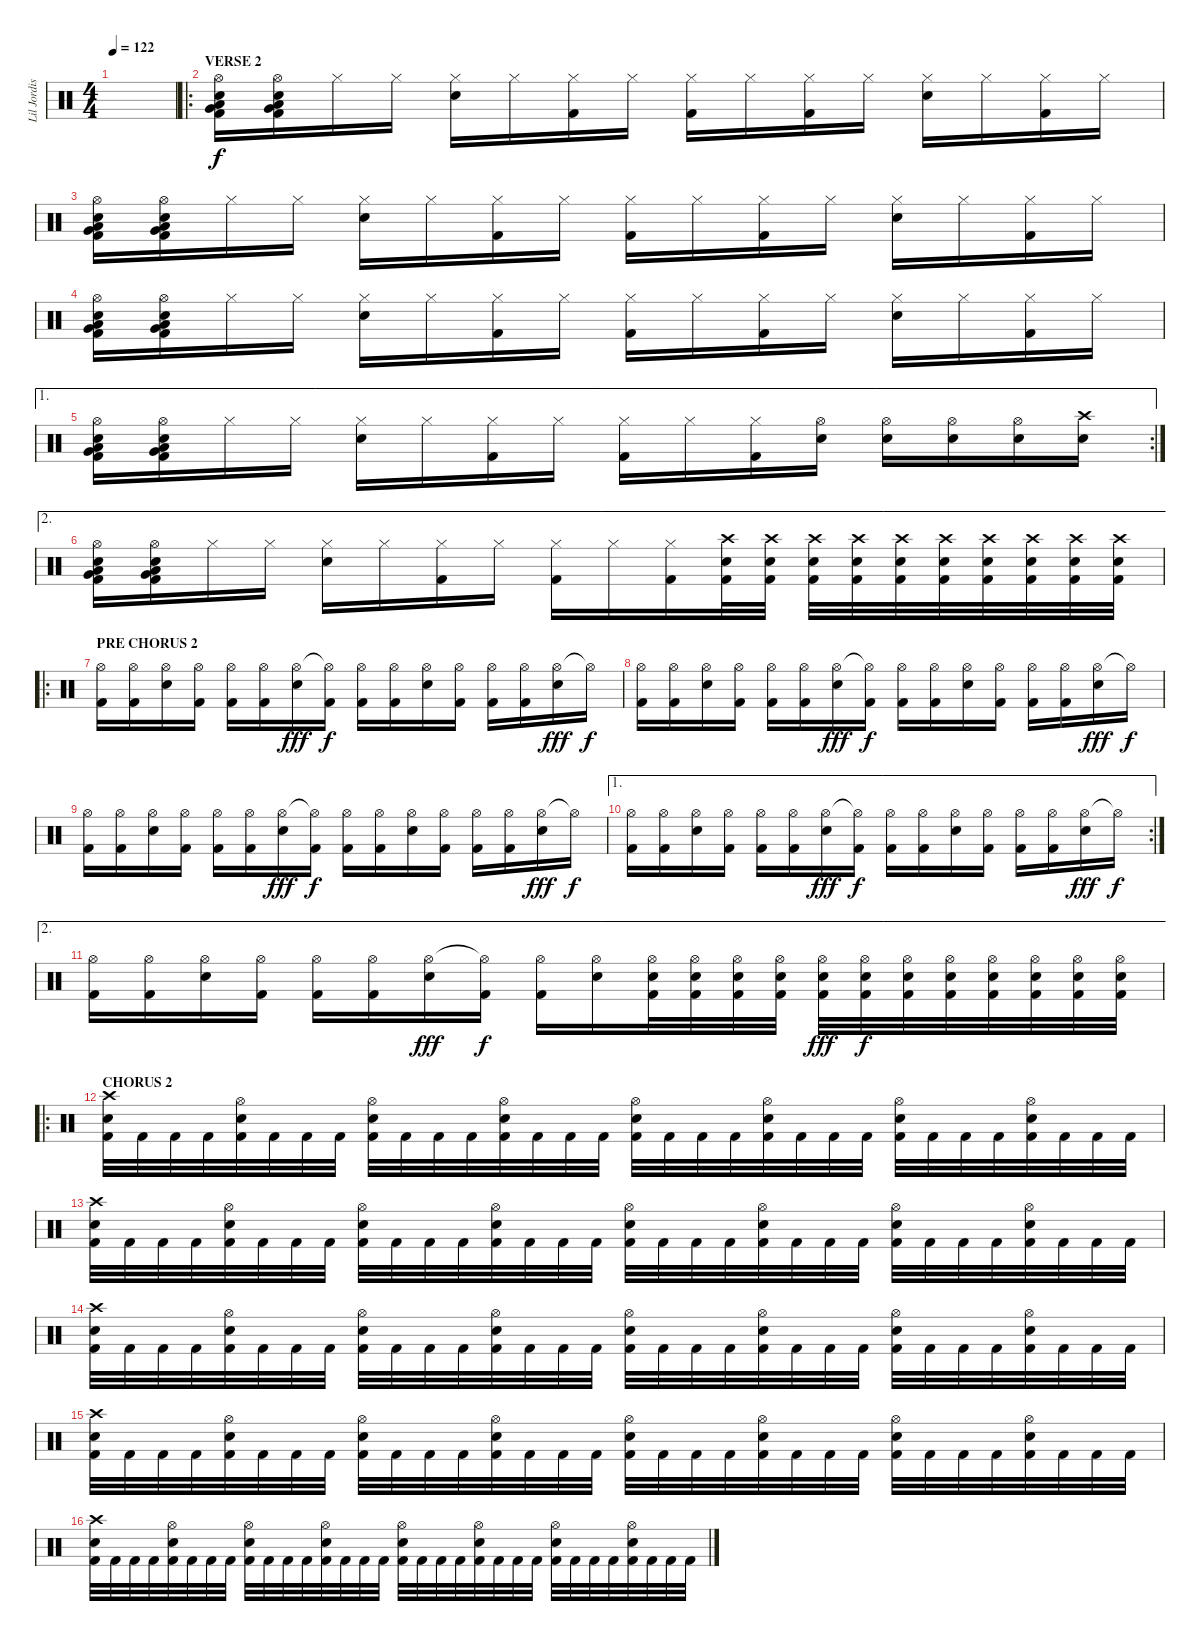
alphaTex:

\track ("Lil Jordison" "Lil Jordis") {instrument percussion}
\staff {score}
\articulation defaults
\ts (4 4)
\tempo 122
\clef neutral
\ks c
|
\ro
\section ("" "VERSE 2")
("Very Low Tom (hit)" "Low Floor Tom (hit)" "Hi-Hat (open)" "Kick (hit) 2" "Electric Snare (hit)").16 ("Very Low Tom (hit)" "Low Floor Tom (hit)" "Hi-Hat (open)" "Kick (hit) 2" "Electric Snare (hit)").16 "Hi-Hat (closed)".16 "Hi-Hat (closed)".16 ("Hi-Hat (closed)" "Electric Snare (hit)").16 "Hi-Hat (closed)".16 ("Hi-Hat (closed)" "Kick (hit) 2").16 "Hi-Hat (closed)".16 ("Hi-Hat (closed)" "Kick (hit) 2").16 "Hi-Hat (closed)".16 ("Hi-Hat (closed)" "Kick (hit) 2").16 "Hi-Hat (closed)".16 ("Hi-Hat (closed)" "Electric Snare (hit)").16 "Hi-Hat (closed)".16 ("Hi-Hat (closed)" "Kick (hit) 2").16 "Hi-Hat (closed)".16 |
("Very Low Tom (hit)" "Low Floor Tom (hit)" "Hi-Hat (open)" "Kick (hit) 2" "Electric Snare (hit)").16 ("Very Low Tom (hit)" "Low Floor Tom (hit)" "Hi-Hat (open)" "Kick (hit) 2" "Electric Snare (hit)").16 "Hi-Hat (closed)".16 "Hi-Hat (closed)".16 ("Hi-Hat (closed)" "Electric Snare (hit)").16 "Hi-Hat (closed)".16 ("Hi-Hat (closed)" "Kick (hit) 2").16 "Hi-Hat (closed)".16 ("Hi-Hat (closed)" "Kick (hit) 2").16 "Hi-Hat (closed)".16 ("Hi-Hat (closed)" "Kick (hit) 2").16 "Hi-Hat (closed)".16 ("Hi-Hat (closed)" "Electric Snare (hit)").16 "Hi-Hat (closed)".16 ("Hi-Hat (closed)" "Kick (hit) 2").16 "Hi-Hat (closed)".16 |
("Very Low Tom (hit)" "Low Floor Tom (hit)" "Hi-Hat (open)" "Kick (hit) 2" "Electric Snare (hit)").16 ("Very Low Tom (hit)" "Low Floor Tom (hit)" "Hi-Hat (open)" "Kick (hit) 2" "Electric Snare (hit)").16 "Hi-Hat (closed)".16 "Hi-Hat (closed)".16 ("Hi-Hat (closed)" "Electric Snare (hit)").16 "Hi-Hat (closed)".16 ("Hi-Hat (closed)" "Kick (hit) 2").16 "Hi-Hat (closed)".16 ("Hi-Hat (closed)" "Kick (hit) 2").16 "Hi-Hat (closed)".16 ("Hi-Hat (closed)" "Kick (hit) 2").16 "Hi-Hat (closed)".16 ("Hi-Hat (closed)" "Electric Snare (hit)").16 "Hi-Hat (closed)".16 ("Hi-Hat (closed)" "Kick (hit) 2").16 "Hi-Hat (closed)".16 |
\ae 1
\rc 2
("Very Low Tom (hit)" "Low Floor Tom (hit)" "Hi-Hat (open)" "Kick (hit) 2" "Electric Snare (hit)").16 ("Very Low Tom (hit)" "Low Floor Tom (hit)" "Hi-Hat (open)" "Kick (hit) 2" "Electric Snare (hit)").16 "Hi-Hat (closed)".16 "Hi-Hat (closed)".16 ("Hi-Hat (closed)" "Electric Snare (hit)").16 "Hi-Hat (closed)".16 ("Hi-Hat (closed)" "Kick (hit) 2").16 "Hi-Hat (closed)".16 ("Hi-Hat (closed)" "Kick (hit) 2").16 "Hi-Hat (closed)".16 ("Hi-Hat (closed)" "Kick (hit) 2").16 ("Hi-Hat (open)" "Electric Snare (hit)").16 ("Hi-Hat (open)" "Electric Snare (hit)").16 ("Hi-Hat (open)" "Electric Snare (hit)").16 ("Hi-Hat (open)" "Electric Snare (hit)").16 ("Crash high (hit)" "Electric Snare (hit)").16 |
\ae 2
("Very Low Tom (hit)" "Low Floor Tom (hit)" "Hi-Hat (open)" "Kick (hit) 2" "Electric Snare (hit)").16 ("Very Low Tom (hit)" "Low Floor Tom (hit)" "Hi-Hat (open)" "Kick (hit) 2" "Electric Snare (hit)").16 "Hi-Hat (closed)".16 "Hi-Hat (closed)".16 ("Hi-Hat (closed)" "Electric Snare (hit)").16 "Hi-Hat (closed)".16 ("Hi-Hat (closed)" "Kick (hit) 2").16 "Hi-Hat (closed)".16 ("Hi-Hat (closed)" "Kick (hit) 2").16 "Hi-Hat (closed)".16 ("Hi-Hat (closed)" "Kick (hit) 2").16 ("Crash high (hit)" "Kick (hit) 2" "Electric Snare (hit)").32 ("Crash high (hit)" "Kick (hit) 2" "Electric Snare (hit)").32 ("Crash high (hit)" "Kick (hit) 2" "Electric Snare (hit)").32 ("Crash high (hit)" "Kick (hit) 2" "Electric Snare (hit)").32 ("Crash high (hit)" "Kick (hit) 2" "Electric Snare (hit)").32 ("Crash high (hit)" "Kick (hit) 2" "Electric Snare (hit)").32 ("Crash high (hit)" "Kick (hit) 2" "Electric Snare (hit)").32 ("Crash high (hit)" "Kick (hit) 2" "Electric Snare (hit)").32 ("Crash high (hit)" "Kick (hit) 2" "Electric Snare (hit)").32 ("Crash high (hit)" "Kick (hit) 2" "Electric Snare (hit)").32 |
\ro
\section ("" "PRE CHORUS 2")
("Hi-Hat (open)" "Kick (hit) 2").16 ("Hi-Hat (open)" "Kick (hit) 2").16 ("Hi-Hat (open)" "Electric Snare (hit)").16 ("Hi-Hat (open)" "Kick (hit) 2").16 ("Hi-Hat (open)" "Kick (hit) 2").16 ("Hi-Hat (open)" "Kick (hit) 2").16 ("Hi-Hat (open)" "Electric Snare (hit)").16{dy fff} ("Hi-Hat (open)"{t} "Kick (hit) 2").16{dy f} ("Hi-Hat (open)" "Kick (hit) 2").16 ("Hi-Hat (open)" "Kick (hit) 2").16 ("Hi-Hat (open)" "Electric Snare (hit)").16 ("Hi-Hat (open)" "Kick (hit) 2").16 ("Hi-Hat (open)" "Kick (hit) 2").16 ("Hi-Hat (open)" "Kick (hit) 2").16 ("Hi-Hat (open)" "Electric Snare (hit)").16{dy fff} "Hi-Hat (open)"{t}.16{dy f} |
("Hi-Hat (open)" "Kick (hit) 2").16 ("Hi-Hat (open)" "Kick (hit) 2").16 ("Hi-Hat (open)" "Electric Snare (hit)").16 ("Hi-Hat (open)" "Kick (hit) 2").16 ("Hi-Hat (open)" "Kick (hit) 2").16 ("Hi-Hat (open)" "Kick (hit) 2").16 ("Hi-Hat (open)" "Electric Snare (hit)").16{dy fff} ("Hi-Hat (open)"{t} "Kick (hit) 2").16{dy f} ("Hi-Hat (open)" "Kick (hit) 2").16 ("Hi-Hat (open)" "Kick (hit) 2").16 ("Hi-Hat (open)" "Electric Snare (hit)").16 ("Hi-Hat (open)" "Kick (hit) 2").16 ("Hi-Hat (open)" "Kick (hit) 2").16 ("Hi-Hat (open)" "Kick (hit) 2").16 ("Hi-Hat (open)" "Electric Snare (hit)").16{dy fff} "Hi-Hat (open)"{t}.16{dy f} |
("Hi-Hat (open)" "Kick (hit) 2").16 ("Hi-Hat (open)" "Kick (hit) 2").16 ("Hi-Hat (open)" "Electric Snare (hit)").16 ("Hi-Hat (open)" "Kick (hit) 2").16 ("Hi-Hat (open)" "Kick (hit) 2").16 ("Hi-Hat (open)" "Kick (hit) 2").16 ("Hi-Hat (open)" "Electric Snare (hit)").16{dy fff} ("Hi-Hat (open)"{t} "Kick (hit) 2").16{dy f} ("Hi-Hat (open)" "Kick (hit) 2").16 ("Hi-Hat (open)" "Kick (hit) 2").16 ("Hi-Hat (open)" "Electric Snare (hit)").16 ("Hi-Hat (open)" "Kick (hit) 2").16 ("Hi-Hat (open)" "Kick (hit) 2").16 ("Hi-Hat (open)" "Kick (hit) 2").16 ("Hi-Hat (open)" "Electric Snare (hit)").16{dy fff} "Hi-Hat (open)"{t}.16{dy f} |
\ae 1
\rc 2
("Hi-Hat (open)" "Kick (hit) 2").16 ("Hi-Hat (open)" "Kick (hit) 2").16 ("Hi-Hat (open)" "Electric Snare (hit)").16 ("Hi-Hat (open)" "Kick (hit) 2").16 ("Hi-Hat (open)" "Kick (hit) 2").16 ("Hi-Hat (open)" "Kick (hit) 2").16 ("Hi-Hat (open)" "Electric Snare (hit)").16{dy fff} ("Hi-Hat (open)"{t} "Kick (hit) 2").16{dy f} ("Hi-Hat (open)" "Kick (hit) 2").16 ("Hi-Hat (open)" "Kick (hit) 2").16 ("Hi-Hat (open)" "Electric Snare (hit)").16 ("Hi-Hat (open)" "Kick (hit) 2").16 ("Hi-Hat (open)" "Kick (hit) 2").16 ("Hi-Hat (open)" "Kick (hit) 2").16 ("Hi-Hat (open)" "Electric Snare (hit)").16{dy fff} "Hi-Hat (open)"{t}.16{dy f} |
\ae 2
("Hi-Hat (open)" "Kick (hit) 2").16 ("Hi-Hat (open)" "Kick (hit) 2").16 ("Hi-Hat (open)" "Electric Snare (hit)").16 ("Hi-Hat (open)" "Kick (hit) 2").16 ("Hi-Hat (open)" "Kick (hit) 2").16 ("Hi-Hat (open)" "Kick (hit) 2").16 ("Hi-Hat (open)" "Electric Snare (hit)").16{dy fff} ("Hi-Hat (open)"{t} "Kick (hit) 2").16{dy f} ("Hi-Hat (open)" "Kick (hit) 2").16 ("Hi-Hat (open)" "Electric Snare (hit)").16 ("Hi-Hat (open)" "Kick (hit) 2" "Electric Snare (hit)").32 ("Hi-Hat (open)" "Kick (hit) 2" "Electric Snare (hit)").32 ("Hi-Hat (open)" "Kick (hit) 2" "Electric Snare (hit)").32 ("Hi-Hat (open)" "Kick (hit) 2" "Electric Snare (hit)").32 ("Hi-Hat (open)" "Kick (hit) 2" "Electric Snare (hit)").32{dy fff} ("Hi-Hat (open)" "Kick (hit) 2" "Electric Snare (hit)").32{dy f} ("Hi-Hat (open)" "Kick (hit) 2" "Electric Snare (hit)").32 ("Hi-Hat (open)" "Kick (hit) 2" "Electric Snare (hit)").32 ("Hi-Hat (open)" "Kick (hit) 2" "Electric Snare (hit)").32 ("Hi-Hat (open)" "Kick (hit) 2" "Electric Snare (hit)").32 ("Hi-Hat (open)" "Kick (hit) 2" "Electric Snare (hit)").32 ("Hi-Hat (open)" "Kick (hit) 2" "Electric Snare (hit)").32 |
\ro
\section ("" "CHORUS 2")
("Crash high (hit)" "Electric Snare (hit)" "Kick (hit) 2").32 "Kick (hit) 2".32 "Kick (hit) 2".32 "Kick (hit) 2".32 ("Hi-Hat (open)" "Electric Snare (hit)" "Kick (hit) 2").32 "Kick (hit) 2".32 "Kick (hit) 2".32 "Kick (hit) 2".32 ("Hi-Hat (open)" "Electric Snare (hit)" "Kick (hit) 2").32 "Kick (hit) 2".32 "Kick (hit) 2".32 "Kick (hit) 2".32 ("Hi-Hat (open)" "Electric Snare (hit)" "Kick (hit) 2").32 "Kick (hit) 2".32 "Kick (hit) 2".32 "Kick (hit) 2".32 ("Hi-Hat (open)" "Electric Snare (hit)" "Kick (hit) 2").32 "Kick (hit) 2".32 "Kick (hit) 2".32 "Kick (hit) 2".32 ("Hi-Hat (open)" "Electric Snare (hit)" "Kick (hit) 2").32 "Kick (hit) 2".32 "Kick (hit) 2".32 "Kick (hit) 2".32 ("Hi-Hat (open)" "Electric Snare (hit)" "Kick (hit) 2").32 "Kick (hit) 2".32 "Kick (hit) 2".32 "Kick (hit) 2".32 ("Hi-Hat (open)" "Electric Snare (hit)" "Kick (hit) 2").32 "Kick (hit) 2".32 "Kick (hit) 2".32 "Kick (hit) 2".32 |
("Crash high (hit)" "Electric Snare (hit)" "Kick (hit) 2").32 "Kick (hit) 2".32 "Kick (hit) 2".32 "Kick (hit) 2".32 ("Hi-Hat (open)" "Electric Snare (hit)" "Kick (hit) 2").32 "Kick (hit) 2".32 "Kick (hit) 2".32 "Kick (hit) 2".32 ("Hi-Hat (open)" "Electric Snare (hit)" "Kick (hit) 2").32 "Kick (hit) 2".32 "Kick (hit) 2".32 "Kick (hit) 2".32 ("Hi-Hat (open)" "Electric Snare (hit)" "Kick (hit) 2").32 "Kick (hit) 2".32 "Kick (hit) 2".32 "Kick (hit) 2".32 ("Hi-Hat (open)" "Electric Snare (hit)" "Kick (hit) 2").32 "Kick (hit) 2".32 "Kick (hit) 2".32 "Kick (hit) 2".32 ("Hi-Hat (open)" "Electric Snare (hit)" "Kick (hit) 2").32 "Kick (hit) 2".32 "Kick (hit) 2".32 "Kick (hit) 2".32 ("Hi-Hat (open)" "Electric Snare (hit)" "Kick (hit) 2").32 "Kick (hit) 2".32 "Kick (hit) 2".32 "Kick (hit) 2".32 ("Hi-Hat (open)" "Electric Snare (hit)" "Kick (hit) 2").32 "Kick (hit) 2".32 "Kick (hit) 2".32 "Kick (hit) 2".32 |
("Crash high (hit)" "Electric Snare (hit)" "Kick (hit) 2").32 "Kick (hit) 2".32 "Kick (hit) 2".32 "Kick (hit) 2".32 ("Hi-Hat (open)" "Electric Snare (hit)" "Kick (hit) 2").32 "Kick (hit) 2".32 "Kick (hit) 2".32 "Kick (hit) 2".32 ("Hi-Hat (open)" "Electric Snare (hit)" "Kick (hit) 2").32 "Kick (hit) 2".32 "Kick (hit) 2".32 "Kick (hit) 2".32 ("Hi-Hat (open)" "Electric Snare (hit)" "Kick (hit) 2").32 "Kick (hit) 2".32 "Kick (hit) 2".32 "Kick (hit) 2".32 ("Hi-Hat (open)" "Electric Snare (hit)" "Kick (hit) 2").32 "Kick (hit) 2".32 "Kick (hit) 2".32 "Kick (hit) 2".32 ("Hi-Hat (open)" "Electric Snare (hit)" "Kick (hit) 2").32 "Kick (hit) 2".32 "Kick (hit) 2".32 "Kick (hit) 2".32 ("Hi-Hat (open)" "Electric Snare (hit)" "Kick (hit) 2").32 "Kick (hit) 2".32 "Kick (hit) 2".32 "Kick (hit) 2".32 ("Hi-Hat (open)" "Electric Snare (hit)" "Kick (hit) 2").32 "Kick (hit) 2".32 "Kick (hit) 2".32 "Kick (hit) 2".32 |
("Crash high (hit)" "Electric Snare (hit)" "Kick (hit) 2").32 "Kick (hit) 2".32 "Kick (hit) 2".32 "Kick (hit) 2".32 ("Hi-Hat (open)" "Electric Snare (hit)" "Kick (hit) 2").32 "Kick (hit) 2".32 "Kick (hit) 2".32 "Kick (hit) 2".32 ("Hi-Hat (open)" "Electric Snare (hit)" "Kick (hit) 2").32 "Kick (hit) 2".32 "Kick (hit) 2".32 "Kick (hit) 2".32 ("Hi-Hat (open)" "Electric Snare (hit)" "Kick (hit) 2").32 "Kick (hit) 2".32 "Kick (hit) 2".32 "Kick (hit) 2".32 ("Hi-Hat (open)" "Electric Snare (hit)" "Kick (hit) 2").32 "Kick (hit) 2".32 "Kick (hit) 2".32 "Kick (hit) 2".32 ("Hi-Hat (open)" "Electric Snare (hit)" "Kick (hit) 2").32 "Kick (hit) 2".32 "Kick (hit) 2".32 "Kick (hit) 2".32 ("Hi-Hat (open)" "Electric Snare (hit)" "Kick (hit) 2").32 "Kick (hit) 2".32 "Kick (hit) 2".32 "Kick (hit) 2".32 ("Hi-Hat (open)" "Electric Snare (hit)" "Kick (hit) 2").32 "Kick (hit) 2".32 "Kick (hit) 2".32 "Kick (hit) 2".32 |
("Crash high (hit)" "Electric Snare (hit)" "Kick (hit) 2").32 "Kick (hit) 2".32 "Kick (hit) 2".32 "Kick (hit) 2".32 ("Hi-Hat (open)" "Electric Snare (hit)" "Kick (hit) 2").32 "Kick (hit) 2".32 "Kick (hit) 2".32 "Kick (hit) 2".32 ("Hi-Hat (open)" "Electric Snare (hit)" "Kick (hit) 2").32 "Kick (hit) 2".32 "Kick (hit) 2".32 "Kick (hit) 2".32 ("Hi-Hat (open)" "Electric Snare (hit)" "Kick (hit) 2").32 "Kick (hit) 2".32 "Kick (hit) 2".32 "Kick (hit) 2".32 ("Hi-Hat (open)" "Electric Snare (hit)" "Kick (hit) 2").32 "Kick (hit) 2".32 "Kick (hit) 2".32 "Kick (hit) 2".32 ("Hi-Hat (open)" "Electric Snare (hit)" "Kick (hit) 2").32 "Kick (hit) 2".32 "Kick (hit) 2".32 "Kick (hit) 2".32 ("Hi-Hat (open)" "Electric Snare (hit)" "Kick (hit) 2").32 "Kick (hit) 2".32 "Kick (hit) 2".32 "Kick (hit) 2".32 ("Hi-Hat (open)" "Electric Snare (hit)" "Kick (hit) 2").32 "Kick (hit) 2".32 "Kick (hit) 2".32 "Kick (hit) 2".32
